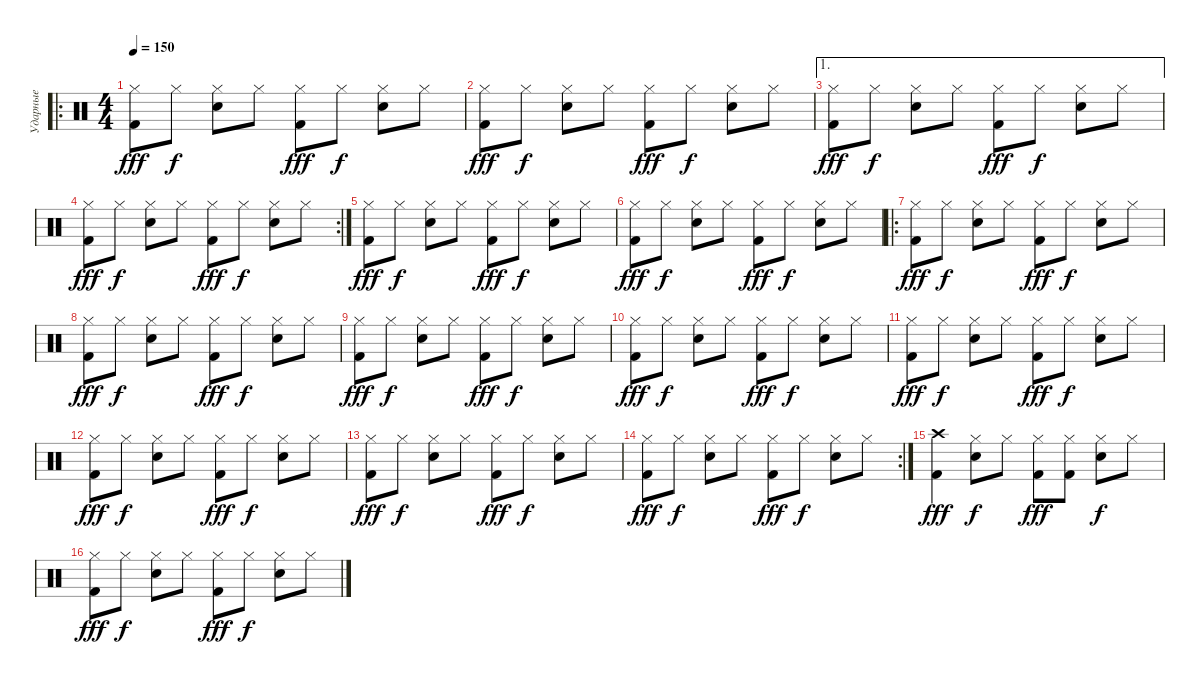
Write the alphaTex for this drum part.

\track ("Ударные" "Ударные") {instrument percussion}
\staff
\articulation defaults
\ro
\ts (4 4)
\tempo 150
\clef neutral
\ks c
("Kick (hit) 2" "Hi-Hat (closed)").8{dy fff} "Hi-Hat (closed)".8{dy f} ("Snare (hit) 2" "Hi-Hat (closed)").8 "Hi-Hat (closed)".8 ("Kick (hit) 2" "Hi-Hat (closed)").8{dy fff} "Hi-Hat (closed)".8{dy f} ("Snare (hit) 2" "Hi-Hat (closed)").8 "Hi-Hat (closed)".8 |
("Kick (hit) 2" "Hi-Hat (closed)").8{dy fff} "Hi-Hat (closed)".8{dy f} ("Snare (hit) 2" "Hi-Hat (closed)").8 "Hi-Hat (closed)".8 ("Kick (hit) 2" "Hi-Hat (closed)").8{dy fff} "Hi-Hat (closed)".8{dy f} ("Snare (hit) 2" "Hi-Hat (closed)").8 "Hi-Hat (closed)".8 |
\ae 1
("Kick (hit) 2" "Hi-Hat (closed)").8{dy fff} "Hi-Hat (closed)".8{dy f} ("Snare (hit) 2" "Hi-Hat (closed)").8 "Hi-Hat (closed)".8 ("Kick (hit) 2" "Hi-Hat (closed)").8{dy fff} "Hi-Hat (closed)".8{dy f} ("Snare (hit) 2" "Hi-Hat (closed)").8 "Hi-Hat (closed)".8 |
\rc 2
("Kick (hit) 2" "Hi-Hat (closed)").8{dy fff} "Hi-Hat (closed)".8{dy f} ("Snare (hit) 2" "Hi-Hat (closed)").8 "Hi-Hat (closed)".8 ("Kick (hit) 2" "Hi-Hat (closed)").8{dy fff} "Hi-Hat (closed)".8{dy f} ("Snare (hit) 2" "Hi-Hat (closed)").8 "Hi-Hat (closed)".8 |
("Kick (hit) 2" "Hi-Hat (closed)").8{dy fff} "Hi-Hat (closed)".8{dy f} ("Snare (hit) 2" "Hi-Hat (closed)").8 "Hi-Hat (closed)".8 ("Kick (hit) 2" "Hi-Hat (closed)").8{dy fff} "Hi-Hat (closed)".8{dy f} ("Snare (hit) 2" "Hi-Hat (closed)").8 "Hi-Hat (closed)".8 |
("Kick (hit) 2" "Hi-Hat (closed)").8{dy fff} "Hi-Hat (closed)".8{dy f} ("Snare (hit) 2" "Hi-Hat (closed)").8 "Hi-Hat (closed)".8 ("Kick (hit) 2" "Hi-Hat (closed)").8{dy fff} "Hi-Hat (closed)".8{dy f} ("Snare (hit) 2" "Hi-Hat (closed)").8 "Hi-Hat (closed)".8 |
\ro
("Kick (hit) 2" "Hi-Hat (closed)").8{dy fff} "Hi-Hat (closed)".8{dy f} ("Snare (hit) 2" "Hi-Hat (closed)").8 "Hi-Hat (closed)".8 ("Kick (hit) 2" "Hi-Hat (closed)").8{dy fff} "Hi-Hat (closed)".8{dy f} ("Snare (hit) 2" "Hi-Hat (closed)").8 "Hi-Hat (closed)".8 |
("Kick (hit) 2" "Hi-Hat (closed)").8{dy fff} "Hi-Hat (closed)".8{dy f} ("Snare (hit) 2" "Hi-Hat (closed)").8 "Hi-Hat (closed)".8 ("Kick (hit) 2" "Hi-Hat (closed)").8{dy fff} "Hi-Hat (closed)".8{dy f} ("Snare (hit) 2" "Hi-Hat (closed)").8 "Hi-Hat (closed)".8 |
("Kick (hit) 2" "Hi-Hat (closed)").8{dy fff} "Hi-Hat (closed)".8{dy f} ("Snare (hit) 2" "Hi-Hat (closed)").8 "Hi-Hat (closed)".8 ("Kick (hit) 2" "Hi-Hat (closed)").8{dy fff} "Hi-Hat (closed)".8{dy f} ("Snare (hit) 2" "Hi-Hat (closed)").8 "Hi-Hat (closed)".8 |
("Kick (hit) 2" "Hi-Hat (closed)").8{dy fff} "Hi-Hat (closed)".8{dy f} ("Snare (hit) 2" "Hi-Hat (closed)").8 "Hi-Hat (closed)".8 ("Kick (hit) 2" "Hi-Hat (closed)").8{dy fff} "Hi-Hat (closed)".8{dy f} ("Snare (hit) 2" "Hi-Hat (closed)").8 "Hi-Hat (closed)".8 |
("Kick (hit) 2" "Hi-Hat (closed)").8{dy fff} "Hi-Hat (closed)".8{dy f} ("Snare (hit) 2" "Hi-Hat (closed)").8 "Hi-Hat (closed)".8 ("Kick (hit) 2" "Hi-Hat (closed)").8{dy fff} "Hi-Hat (closed)".8{dy f} ("Snare (hit) 2" "Hi-Hat (closed)").8 "Hi-Hat (closed)".8 |
("Kick (hit) 2" "Hi-Hat (closed)").8{dy fff} "Hi-Hat (closed)".8{dy f} ("Snare (hit) 2" "Hi-Hat (closed)").8 "Hi-Hat (closed)".8 ("Kick (hit) 2" "Hi-Hat (closed)").8{dy fff} "Hi-Hat (closed)".8{dy f} ("Snare (hit) 2" "Hi-Hat (closed)").8 "Hi-Hat (closed)".8 |
("Kick (hit) 2" "Hi-Hat (closed)").8{dy fff} "Hi-Hat (closed)".8{dy f} ("Snare (hit) 2" "Hi-Hat (closed)").8 "Hi-Hat (closed)".8 ("Kick (hit) 2" "Hi-Hat (closed)").8{dy fff} "Hi-Hat (closed)".8{dy f} ("Snare (hit) 2" "Hi-Hat (closed)").8 "Hi-Hat (closed)".8 |
\rc 2
("Kick (hit) 2" "Hi-Hat (closed)").8{dy fff} "Hi-Hat (closed)".8{dy f} ("Snare (hit) 2" "Hi-Hat (closed)").8 "Hi-Hat (closed)".8 ("Kick (hit) 2" "Hi-Hat (closed)").8{dy fff} "Hi-Hat (closed)".8{dy f} ("Snare (hit) 2" "Hi-Hat (closed)").8 "Hi-Hat (closed)".8 |
("Kick (hit) 2" "Crash high (hit)").4{dy fff} ("Snare (hit) 2" "Hi-Hat (closed)").8{dy f} "Hi-Hat (closed)".8 ("Kick (hit) 2" "Hi-Hat (closed)").8{dy fff} ("Kick (hit) 2" "Hi-Hat (closed)").8 ("Snare (hit) 2" "Hi-Hat (closed)").8{dy f} "Hi-Hat (closed)".8 |
("Kick (hit) 2" "Hi-Hat (closed)").8{dy fff} "Hi-Hat (closed)".8{dy f} ("Snare (hit) 2" "Hi-Hat (closed)").8 "Hi-Hat (closed)".8 ("Kick (hit) 2" "Hi-Hat (closed)").8{dy fff} "Hi-Hat (closed)".8{dy f} ("Snare (hit) 2" "Hi-Hat (closed)").8 "Hi-Hat (closed)".8
